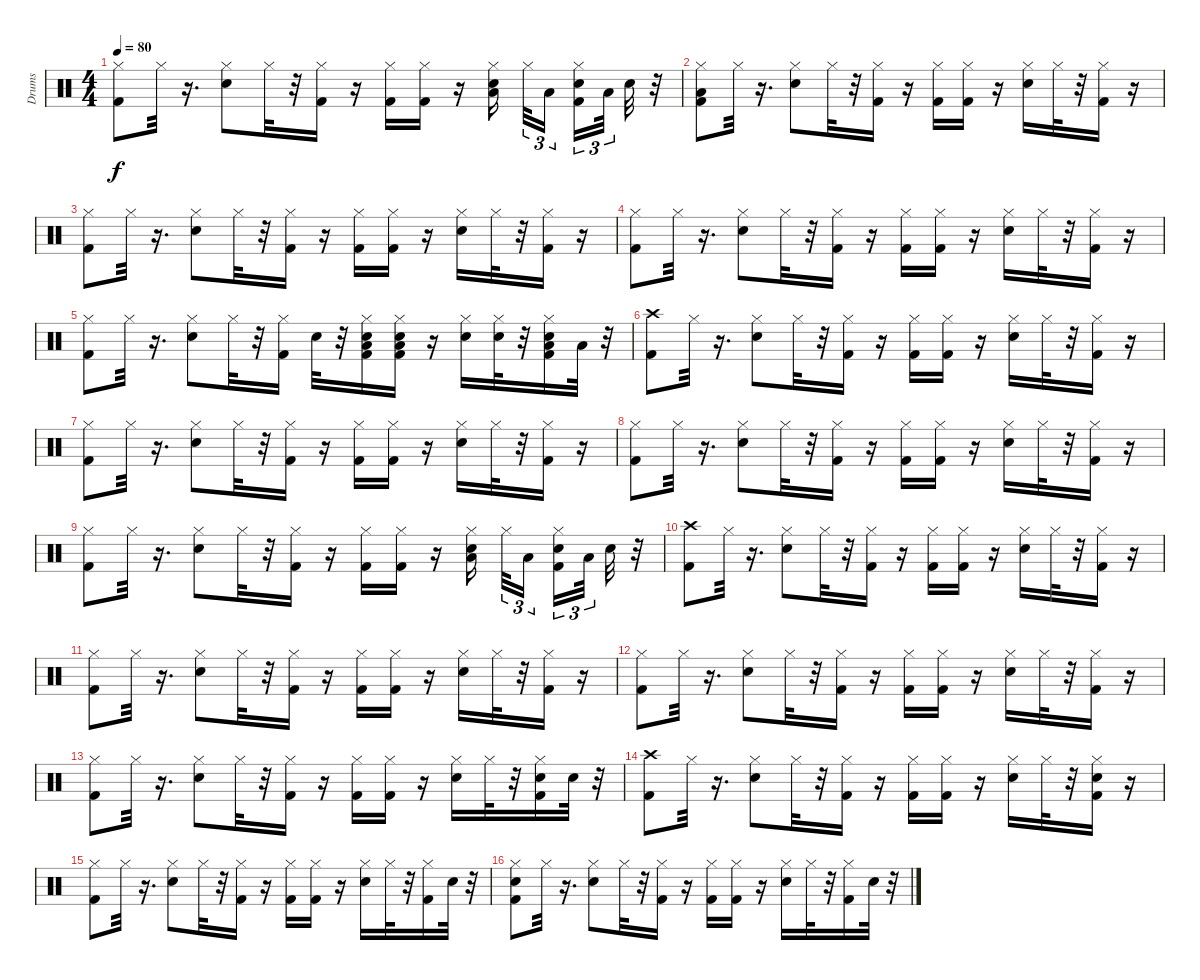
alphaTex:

\track ("Drums" "Drums") {instrument percussion}
\staff {score}
\articulation defaults
\ts (4 4)
\tempo 80
\clef neutral
\ks c
("Hi-Hat (closed)" "Kick (hit) 2").8{dy f} "Hi-Hat (closed)".32 r.16{d} ("Hi-Hat (closed)" "Snare (hit) 2").8 "Hi-Hat (closed)".32 r.32 ("Kick (hit) 2" "Hi-Hat (closed)").16 r.16 ("Hi-Hat (closed)" "Kick (hit) 2").16 ("Hi-Hat (closed)" "Kick (hit) 2").16 r.16 ("Low Floor Tom (hit)" "Hi-Hat (closed)" "Snare (hit) 2").16 "Hi-Hat (closed)".32{tu (3 2)} "Low Floor Tom (hit)".16{tu (3 2)} ("Snare (hit) 2" "Hi-Hat (closed)" "Kick (hit) 2").16{tu (3 2)} "Low Floor Tom (hit)".32{tu (3 2)} "Snare (hit) 2".32 r.32 |
("Low Floor Tom (hit)" "Hi-Hat (closed)" "Kick (hit) 2").8 "Hi-Hat (closed)".32 r.16{d} ("Hi-Hat (closed)" "Snare (hit) 2").8 "Hi-Hat (closed)".32 r.32 ("Kick (hit) 2" "Hi-Hat (closed)").16 r.16 ("Hi-Hat (closed)" "Kick (hit) 2").16 ("Hi-Hat (closed)" "Kick (hit) 2").16 r.16 ("Hi-Hat (closed)" "Snare (hit) 2").16 "Hi-Hat (closed)".32 r.32 ("Hi-Hat (closed)" "Kick (hit) 2").16 r.16 |
("Hi-Hat (closed)" "Kick (hit) 2").8 "Hi-Hat (closed)".32 r.16{d} ("Hi-Hat (closed)" "Snare (hit) 2").8 "Hi-Hat (closed)".32 r.32 ("Kick (hit) 2" "Hi-Hat (closed)").16 r.16 ("Hi-Hat (closed)" "Kick (hit) 2").16 ("Hi-Hat (closed)" "Kick (hit) 2").16 r.16 ("Hi-Hat (closed)" "Snare (hit) 2").16 "Hi-Hat (closed)".32 r.32 ("Hi-Hat (closed)" "Kick (hit) 2").16 r.16 |
("Hi-Hat (closed)" "Kick (hit) 2").8 "Hi-Hat (closed)".32 r.16{d} ("Hi-Hat (closed)" "Snare (hit) 2").8 "Hi-Hat (closed)".32 r.32 ("Kick (hit) 2" "Hi-Hat (closed)").16 r.16 ("Hi-Hat (closed)" "Kick (hit) 2").16 ("Hi-Hat (closed)" "Kick (hit) 2").16 r.16 ("Hi-Hat (closed)" "Snare (hit) 2").16 "Hi-Hat (closed)".32 r.32 ("Hi-Hat (closed)" "Kick (hit) 2").16 r.16 |
("Hi-Hat (closed)" "Kick (hit) 2").8 "Hi-Hat (closed)".32 r.16{d} ("Hi-Hat (closed)" "Snare (hit) 2").8 "Hi-Hat (closed)".32 r.32 ("Kick (hit) 2" "Hi-Hat (closed)").16 "Snare (hit) 2".32 r.32 ("Low Floor Tom (hit)" "Snare (hit) 2" "Hi-Hat (closed)" "Kick (hit) 2").16 ("Low Floor Tom (hit)" "Snare (hit) 2" "Hi-Hat (closed)" "Kick (hit) 2").16 r.16 ("Hi-Hat (closed)" "Snare (hit) 2").16 ("Snare (hit) 2" "Hi-Hat (closed)").32 r.32 ("Low Floor Tom (hit)" "Snare (hit) 2" "Hi-Hat (closed)" "Kick (hit) 2").16 "Low Floor Tom (hit)".32 r.32 |
("Crash high (hit)" "Kick (hit) 2").8 "Hi-Hat (closed)".32 r.16{d} ("Hi-Hat (closed)" "Snare (hit) 2").8 "Hi-Hat (closed)".32 r.32 ("Kick (hit) 2" "Hi-Hat (closed)").16 r.16 ("Hi-Hat (closed)" "Kick (hit) 2").16 ("Hi-Hat (closed)" "Kick (hit) 2").16 r.16 ("Hi-Hat (closed)" "Snare (hit) 2").16 "Hi-Hat (closed)".32 r.32 ("Hi-Hat (closed)" "Kick (hit) 2").16 r.16 |
("Hi-Hat (closed)" "Kick (hit) 2").8 "Hi-Hat (closed)".32 r.16{d} ("Hi-Hat (closed)" "Snare (hit) 2").8 "Hi-Hat (closed)".32 r.32 ("Kick (hit) 2" "Hi-Hat (closed)").16 r.16 ("Hi-Hat (closed)" "Kick (hit) 2").16 ("Hi-Hat (closed)" "Kick (hit) 2").16 r.16 ("Hi-Hat (closed)" "Snare (hit) 2").16 "Hi-Hat (closed)".32 r.32 ("Hi-Hat (closed)" "Kick (hit) 2").16 r.16 |
("Hi-Hat (closed)" "Kick (hit) 2").8 "Hi-Hat (closed)".32 r.16{d} ("Hi-Hat (closed)" "Snare (hit) 2").8 "Hi-Hat (closed)".32 r.32 ("Kick (hit) 2" "Hi-Hat (closed)").16 r.16 ("Hi-Hat (closed)" "Kick (hit) 2").16 ("Hi-Hat (closed)" "Kick (hit) 2").16 r.16 ("Hi-Hat (closed)" "Snare (hit) 2").16 "Hi-Hat (closed)".32 r.32 ("Hi-Hat (closed)" "Kick (hit) 2").16 r.16 |
("Hi-Hat (closed)" "Kick (hit) 2").8 "Hi-Hat (closed)".32 r.16{d} ("Hi-Hat (closed)" "Snare (hit) 2").8 "Hi-Hat (closed)".32 r.32 ("Kick (hit) 2" "Hi-Hat (closed)").16 r.16 ("Hi-Hat (closed)" "Kick (hit) 2").16 ("Hi-Hat (closed)" "Kick (hit) 2").16 r.16 ("Low Floor Tom (hit)" "Hi-Hat (closed)" "Snare (hit) 2").16 "Hi-Hat (closed)".32{tu (3 2)} "Low Floor Tom (hit)".16{tu (3 2)} ("Snare (hit) 2" "Hi-Hat (closed)" "Kick (hit) 2").16{tu (3 2)} "Low Floor Tom (hit)".32{tu (3 2)} "Snare (hit) 2".32 r.32 |
("Crash high (hit)" "Kick (hit) 2").8 "Hi-Hat (closed)".32 r.16{d} ("Hi-Hat (closed)" "Snare (hit) 2").8 "Hi-Hat (closed)".32 r.32 ("Kick (hit) 2" "Hi-Hat (closed)").16 r.16 ("Hi-Hat (closed)" "Kick (hit) 2").16 ("Hi-Hat (closed)" "Kick (hit) 2").16 r.16 ("Hi-Hat (closed)" "Snare (hit) 2").16 "Hi-Hat (closed)".32 r.32 ("Hi-Hat (closed)" "Kick (hit) 2").16 r.16 |
("Hi-Hat (closed)" "Kick (hit) 2").8 "Hi-Hat (closed)".32 r.16{d} ("Hi-Hat (closed)" "Snare (hit) 2").8 "Hi-Hat (closed)".32 r.32 ("Kick (hit) 2" "Hi-Hat (closed)").16 r.16 ("Hi-Hat (closed)" "Kick (hit) 2").16 ("Hi-Hat (closed)" "Kick (hit) 2").16 r.16 ("Hi-Hat (closed)" "Snare (hit) 2").16 "Hi-Hat (closed)".32 r.32 ("Hi-Hat (closed)" "Kick (hit) 2").16 r.16 |
("Hi-Hat (closed)" "Kick (hit) 2").8 "Hi-Hat (closed)".32 r.16{d} ("Hi-Hat (closed)" "Snare (hit) 2").8 "Hi-Hat (closed)".32 r.32 ("Kick (hit) 2" "Hi-Hat (closed)").16 r.16 ("Hi-Hat (closed)" "Kick (hit) 2").16 ("Hi-Hat (closed)" "Kick (hit) 2").16 r.16 ("Hi-Hat (closed)" "Snare (hit) 2").16 "Hi-Hat (closed)".32 r.32 ("Hi-Hat (closed)" "Kick (hit) 2").16 r.16 |
("Hi-Hat (closed)" "Kick (hit) 2").8 "Hi-Hat (closed)".32 r.16{d} ("Hi-Hat (closed)" "Snare (hit) 2").8 "Hi-Hat (closed)".32 r.32 ("Kick (hit) 2" "Hi-Hat (closed)").16 r.16 ("Hi-Hat (closed)" "Kick (hit) 2").16 ("Hi-Hat (closed)" "Kick (hit) 2").16 r.16 ("Hi-Hat (closed)" "Snare (hit) 2").16 "Hi-Hat (closed)".32 r.32 ("Snare (hit) 2" "Hi-Hat (closed)" "Kick (hit) 2").16 "Snare (hit) 2".32 r.32 |
("Crash high (hit)" "Kick (hit) 2").8 "Hi-Hat (closed)".32 r.16{d} ("Hi-Hat (closed)" "Snare (hit) 2").8 "Hi-Hat (closed)".32 r.32 ("Kick (hit) 2" "Hi-Hat (closed)").16 r.16 ("Hi-Hat (closed)" "Kick (hit) 2").16 ("Hi-Hat (closed)" "Kick (hit) 2").16 r.16 ("Hi-Hat (closed)" "Snare (hit) 2").16 "Hi-Hat (closed)".32 r.32 ("Snare (hit) 2" "Hi-Hat (closed)" "Kick (hit) 2").16 r.16 |
("Hi-Hat (closed)" "Kick (hit) 2").8 "Hi-Hat (closed)".32 r.16{d} ("Hi-Hat (closed)" "Snare (hit) 2").8 "Hi-Hat (closed)".32 r.32 ("Kick (hit) 2" "Hi-Hat (closed)").16 r.16 ("Hi-Hat (closed)" "Kick (hit) 2").16 ("Hi-Hat (closed)" "Kick (hit) 2").16 r.16 ("Hi-Hat (closed)" "Snare (hit) 2").16 "Hi-Hat (closed)".32 r.32 ("Hi-Hat (closed)" "Kick (hit) 2").16 "Snare (hit) 2".32 r.32 |
("Snare (hit) 2" "Hi-Hat (closed)" "Kick (hit) 2").8 "Hi-Hat (closed)".32 r.16{d} ("Hi-Hat (closed)" "Snare (hit) 2").8 "Hi-Hat (closed)".32 r.32 ("Kick (hit) 2" "Hi-Hat (closed)").16 r.16 ("Hi-Hat (closed)" "Kick (hit) 2").16 ("Hi-Hat (closed)" "Kick (hit) 2").16 r.16 ("Hi-Hat (closed)" "Snare (hit) 2").16 "Hi-Hat (closed)".32 r.32 ("Hi-Hat (closed)" "Kick (hit) 2").16 "Snare (hit) 2".32 r.32
